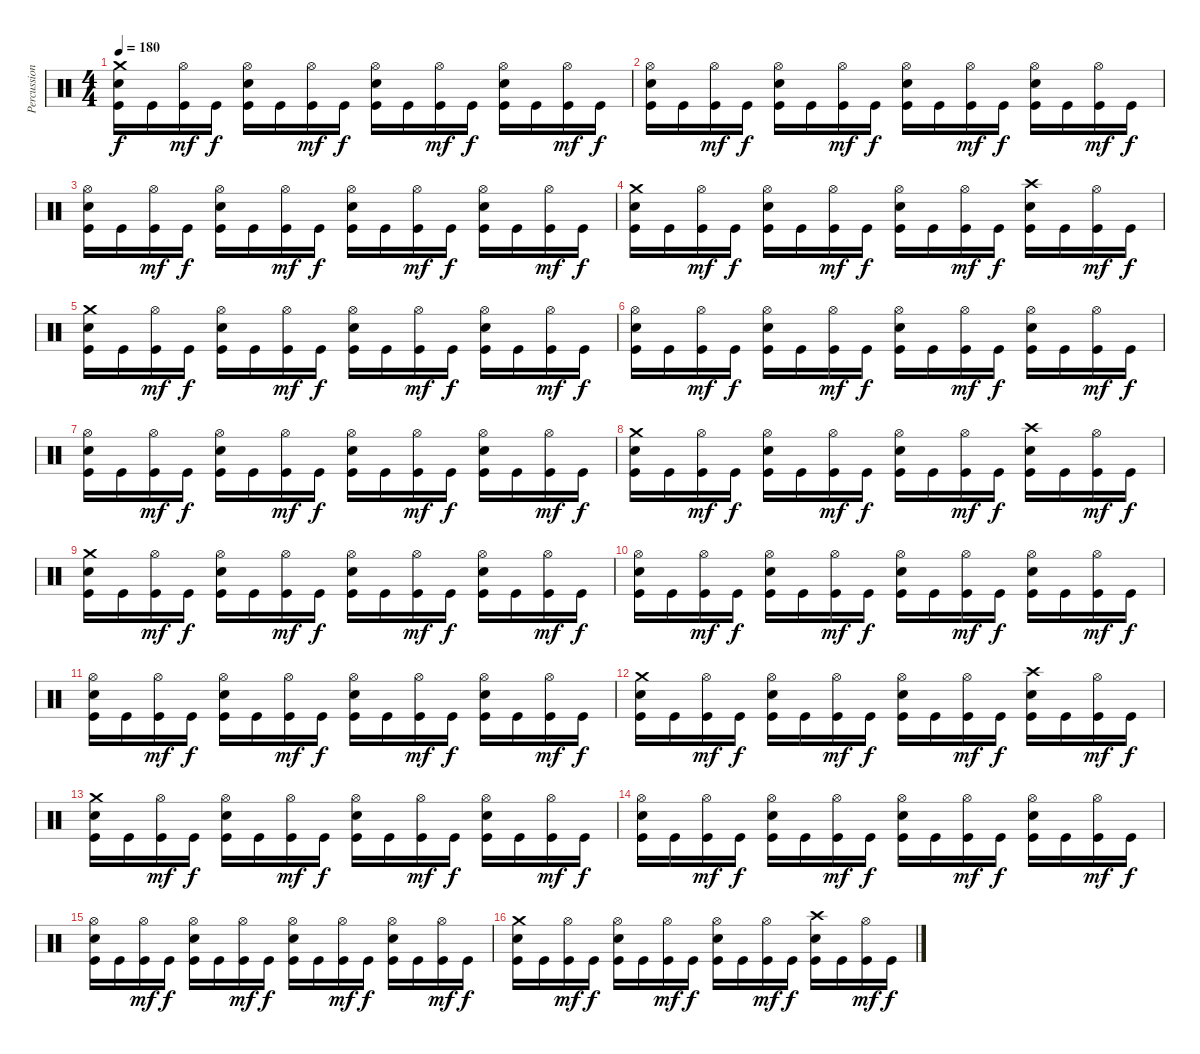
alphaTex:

\track ("Percussions" "Percussion") {instrument percussion}
\staff {score}
\articulation defaults
\ts (4 4)
\tempo 180
\clef neutral
\ks c
("Crash medium (hit)" "Electric Snare (hit)" "Kick (hit)").16{dy f} "Kick (hit)".16 ("Hi-Hat (open)" "Kick (hit)").16{dy mf} "Kick (hit)".16{dy f} ("Hi-Hat (open)" "Electric Snare (hit)" "Kick (hit)").16 "Kick (hit)".16 ("Hi-Hat (open)" "Kick (hit)").16{dy mf} "Kick (hit)".16{dy f} ("Hi-Hat (open)" "Electric Snare (hit)" "Kick (hit)").16 "Kick (hit)".16 ("Hi-Hat (open)" "Kick (hit)").16{dy mf} "Kick (hit)".16{dy f} ("Hi-Hat (open)" "Electric Snare (hit)" "Kick (hit)").16 "Kick (hit)".16 ("Hi-Hat (open)" "Kick (hit)").16{dy mf} "Kick (hit)".16{dy f} |
("Hi-Hat (open)" "Electric Snare (hit)" "Kick (hit)").16 "Kick (hit)".16 ("Hi-Hat (open)" "Kick (hit)").16{dy mf} "Kick (hit)".16{dy f} ("Hi-Hat (open)" "Electric Snare (hit)" "Kick (hit)").16 "Kick (hit)".16 ("Hi-Hat (open)" "Kick (hit)").16{dy mf} "Kick (hit)".16{dy f} ("Hi-Hat (open)" "Electric Snare (hit)" "Kick (hit)").16 "Kick (hit)".16 ("Hi-Hat (open)" "Kick (hit)").16{dy mf} "Kick (hit)".16{dy f} ("Hi-Hat (open)" "Electric Snare (hit)" "Kick (hit)").16 "Kick (hit)".16 ("Hi-Hat (open)" "Kick (hit)").16{dy mf} "Kick (hit)".16{dy f} |
("Hi-Hat (open)" "Electric Snare (hit)" "Kick (hit)").16 "Kick (hit)".16 ("Hi-Hat (open)" "Kick (hit)").16{dy mf} "Kick (hit)".16{dy f} ("Hi-Hat (open)" "Electric Snare (hit)" "Kick (hit)").16 "Kick (hit)".16 ("Hi-Hat (open)" "Kick (hit)").16{dy mf} "Kick (hit)".16{dy f} ("Hi-Hat (open)" "Electric Snare (hit)" "Kick (hit)").16 "Kick (hit)".16 ("Hi-Hat (open)" "Kick (hit)").16{dy mf} "Kick (hit)".16{dy f} ("Hi-Hat (open)" "Electric Snare (hit)" "Kick (hit)").16 "Kick (hit)".16 ("Hi-Hat (open)" "Kick (hit)").16{dy mf} "Kick (hit)".16{dy f} |
("Crash medium (hit)" "Electric Snare (hit)" "Kick (hit)").16 "Kick (hit)".16 ("Hi-Hat (open)" "Kick (hit)").16{dy mf} "Kick (hit)".16{dy f} ("Hi-Hat (open)" "Electric Snare (hit)" "Kick (hit)").16 "Kick (hit)".16 ("Hi-Hat (open)" "Kick (hit)").16{dy mf} "Kick (hit)".16{dy f} ("Hi-Hat (open)" "Electric Snare (hit)" "Kick (hit)").16 "Kick (hit)".16 ("Hi-Hat (open)" "Kick (hit)").16{dy mf} "Kick (hit)".16{dy f} ("Crash high (hit)" "Electric Snare (hit)" "Kick (hit)").16 "Kick (hit)".16 ("Hi-Hat (open)" "Kick (hit)").16{dy mf} "Kick (hit)".16{dy f} |
("Crash medium (hit)" "Electric Snare (hit)" "Kick (hit)").16 "Kick (hit)".16 ("Hi-Hat (open)" "Kick (hit)").16{dy mf} "Kick (hit)".16{dy f} ("Hi-Hat (open)" "Electric Snare (hit)" "Kick (hit)").16 "Kick (hit)".16 ("Hi-Hat (open)" "Kick (hit)").16{dy mf} "Kick (hit)".16{dy f} ("Hi-Hat (open)" "Electric Snare (hit)" "Kick (hit)").16 "Kick (hit)".16 ("Hi-Hat (open)" "Kick (hit)").16{dy mf} "Kick (hit)".16{dy f} ("Hi-Hat (open)" "Electric Snare (hit)" "Kick (hit)").16 "Kick (hit)".16 ("Hi-Hat (open)" "Kick (hit)").16{dy mf} "Kick (hit)".16{dy f} |
("Hi-Hat (open)" "Electric Snare (hit)" "Kick (hit)").16 "Kick (hit)".16 ("Hi-Hat (open)" "Kick (hit)").16{dy mf} "Kick (hit)".16{dy f} ("Hi-Hat (open)" "Electric Snare (hit)" "Kick (hit)").16 "Kick (hit)".16 ("Hi-Hat (open)" "Kick (hit)").16{dy mf} "Kick (hit)".16{dy f} ("Hi-Hat (open)" "Electric Snare (hit)" "Kick (hit)").16 "Kick (hit)".16 ("Hi-Hat (open)" "Kick (hit)").16{dy mf} "Kick (hit)".16{dy f} ("Hi-Hat (open)" "Electric Snare (hit)" "Kick (hit)").16 "Kick (hit)".16 ("Hi-Hat (open)" "Kick (hit)").16{dy mf} "Kick (hit)".16{dy f} |
("Hi-Hat (open)" "Electric Snare (hit)" "Kick (hit)").16 "Kick (hit)".16 ("Hi-Hat (open)" "Kick (hit)").16{dy mf} "Kick (hit)".16{dy f} ("Hi-Hat (open)" "Electric Snare (hit)" "Kick (hit)").16 "Kick (hit)".16 ("Hi-Hat (open)" "Kick (hit)").16{dy mf} "Kick (hit)".16{dy f} ("Hi-Hat (open)" "Electric Snare (hit)" "Kick (hit)").16 "Kick (hit)".16 ("Hi-Hat (open)" "Kick (hit)").16{dy mf} "Kick (hit)".16{dy f} ("Hi-Hat (open)" "Electric Snare (hit)" "Kick (hit)").16 "Kick (hit)".16 ("Hi-Hat (open)" "Kick (hit)").16{dy mf} "Kick (hit)".16{dy f} |
("Crash medium (hit)" "Electric Snare (hit)" "Kick (hit)").16 "Kick (hit)".16 ("Hi-Hat (open)" "Kick (hit)").16{dy mf} "Kick (hit)".16{dy f} ("Hi-Hat (open)" "Electric Snare (hit)" "Kick (hit)").16 "Kick (hit)".16 ("Hi-Hat (open)" "Kick (hit)").16{dy mf} "Kick (hit)".16{dy f} ("Hi-Hat (open)" "Electric Snare (hit)" "Kick (hit)").16 "Kick (hit)".16 ("Hi-Hat (open)" "Kick (hit)").16{dy mf} "Kick (hit)".16{dy f} ("Crash high (hit)" "Electric Snare (hit)" "Kick (hit)").16 "Kick (hit)".16 ("Hi-Hat (open)" "Kick (hit)").16{dy mf} "Kick (hit)".16{dy f} |
("Crash medium (hit)" "Electric Snare (hit)" "Kick (hit)").16 "Kick (hit)".16 ("Hi-Hat (open)" "Kick (hit)").16{dy mf} "Kick (hit)".16{dy f} ("Hi-Hat (open)" "Electric Snare (hit)" "Kick (hit)").16 "Kick (hit)".16 ("Hi-Hat (open)" "Kick (hit)").16{dy mf} "Kick (hit)".16{dy f} ("Hi-Hat (open)" "Electric Snare (hit)" "Kick (hit)").16 "Kick (hit)".16 ("Hi-Hat (open)" "Kick (hit)").16{dy mf} "Kick (hit)".16{dy f} ("Hi-Hat (open)" "Electric Snare (hit)" "Kick (hit)").16 "Kick (hit)".16 ("Hi-Hat (open)" "Kick (hit)").16{dy mf} "Kick (hit)".16{dy f} |
("Hi-Hat (open)" "Electric Snare (hit)" "Kick (hit)").16 "Kick (hit)".16 ("Hi-Hat (open)" "Kick (hit)").16{dy mf} "Kick (hit)".16{dy f} ("Hi-Hat (open)" "Electric Snare (hit)" "Kick (hit)").16 "Kick (hit)".16 ("Hi-Hat (open)" "Kick (hit)").16{dy mf} "Kick (hit)".16{dy f} ("Hi-Hat (open)" "Electric Snare (hit)" "Kick (hit)").16 "Kick (hit)".16 ("Hi-Hat (open)" "Kick (hit)").16{dy mf} "Kick (hit)".16{dy f} ("Hi-Hat (open)" "Electric Snare (hit)" "Kick (hit)").16 "Kick (hit)".16 ("Hi-Hat (open)" "Kick (hit)").16{dy mf} "Kick (hit)".16{dy f} |
("Hi-Hat (open)" "Electric Snare (hit)" "Kick (hit)").16 "Kick (hit)".16 ("Hi-Hat (open)" "Kick (hit)").16{dy mf} "Kick (hit)".16{dy f} ("Hi-Hat (open)" "Electric Snare (hit)" "Kick (hit)").16 "Kick (hit)".16 ("Hi-Hat (open)" "Kick (hit)").16{dy mf} "Kick (hit)".16{dy f} ("Hi-Hat (open)" "Electric Snare (hit)" "Kick (hit)").16 "Kick (hit)".16 ("Hi-Hat (open)" "Kick (hit)").16{dy mf} "Kick (hit)".16{dy f} ("Hi-Hat (open)" "Electric Snare (hit)" "Kick (hit)").16 "Kick (hit)".16 ("Hi-Hat (open)" "Kick (hit)").16{dy mf} "Kick (hit)".16{dy f} |
("Crash medium (hit)" "Electric Snare (hit)" "Kick (hit)").16 "Kick (hit)".16 ("Hi-Hat (open)" "Kick (hit)").16{dy mf} "Kick (hit)".16{dy f} ("Hi-Hat (open)" "Electric Snare (hit)" "Kick (hit)").16 "Kick (hit)".16 ("Hi-Hat (open)" "Kick (hit)").16{dy mf} "Kick (hit)".16{dy f} ("Hi-Hat (open)" "Electric Snare (hit)" "Kick (hit)").16 "Kick (hit)".16 ("Hi-Hat (open)" "Kick (hit)").16{dy mf} "Kick (hit)".16{dy f} ("Crash high (hit)" "Electric Snare (hit)" "Kick (hit)").16 "Kick (hit)".16 ("Hi-Hat (open)" "Kick (hit)").16{dy mf} "Kick (hit)".16{dy f} |
("Crash medium (hit)" "Electric Snare (hit)" "Kick (hit)").16 "Kick (hit)".16 ("Hi-Hat (open)" "Kick (hit)").16{dy mf} "Kick (hit)".16{dy f} ("Hi-Hat (open)" "Electric Snare (hit)" "Kick (hit)").16 "Kick (hit)".16 ("Hi-Hat (open)" "Kick (hit)").16{dy mf} "Kick (hit)".16{dy f} ("Hi-Hat (open)" "Electric Snare (hit)" "Kick (hit)").16 "Kick (hit)".16 ("Hi-Hat (open)" "Kick (hit)").16{dy mf} "Kick (hit)".16{dy f} ("Hi-Hat (open)" "Electric Snare (hit)" "Kick (hit)").16 "Kick (hit)".16 ("Hi-Hat (open)" "Kick (hit)").16{dy mf} "Kick (hit)".16{dy f} |
("Hi-Hat (open)" "Electric Snare (hit)" "Kick (hit)").16 "Kick (hit)".16 ("Hi-Hat (open)" "Kick (hit)").16{dy mf} "Kick (hit)".16{dy f} ("Hi-Hat (open)" "Electric Snare (hit)" "Kick (hit)").16 "Kick (hit)".16 ("Hi-Hat (open)" "Kick (hit)").16{dy mf} "Kick (hit)".16{dy f} ("Hi-Hat (open)" "Electric Snare (hit)" "Kick (hit)").16 "Kick (hit)".16 ("Hi-Hat (open)" "Kick (hit)").16{dy mf} "Kick (hit)".16{dy f} ("Hi-Hat (open)" "Electric Snare (hit)" "Kick (hit)").16 "Kick (hit)".16 ("Hi-Hat (open)" "Kick (hit)").16{dy mf} "Kick (hit)".16{dy f} |
("Hi-Hat (open)" "Electric Snare (hit)" "Kick (hit)").16 "Kick (hit)".16 ("Hi-Hat (open)" "Kick (hit)").16{dy mf} "Kick (hit)".16{dy f} ("Hi-Hat (open)" "Electric Snare (hit)" "Kick (hit)").16 "Kick (hit)".16 ("Hi-Hat (open)" "Kick (hit)").16{dy mf} "Kick (hit)".16{dy f} ("Hi-Hat (open)" "Electric Snare (hit)" "Kick (hit)").16 "Kick (hit)".16 ("Hi-Hat (open)" "Kick (hit)").16{dy mf} "Kick (hit)".16{dy f} ("Hi-Hat (open)" "Electric Snare (hit)" "Kick (hit)").16 "Kick (hit)".16 ("Hi-Hat (open)" "Kick (hit)").16{dy mf} "Kick (hit)".16{dy f} |
("Crash medium (hit)" "Electric Snare (hit)" "Kick (hit)").16 "Kick (hit)".16 ("Hi-Hat (open)" "Kick (hit)").16{dy mf} "Kick (hit)".16{dy f} ("Hi-Hat (open)" "Electric Snare (hit)" "Kick (hit)").16 "Kick (hit)".16 ("Hi-Hat (open)" "Kick (hit)").16{dy mf} "Kick (hit)".16{dy f} ("Hi-Hat (open)" "Electric Snare (hit)" "Kick (hit)").16 "Kick (hit)".16 ("Hi-Hat (open)" "Kick (hit)").16{dy mf} "Kick (hit)".16{dy f} ("Crash high (hit)" "Electric Snare (hit)" "Kick (hit)").16 "Kick (hit)".16 ("Hi-Hat (open)" "Kick (hit)").16{dy mf} "Kick (hit)".16{dy f}
